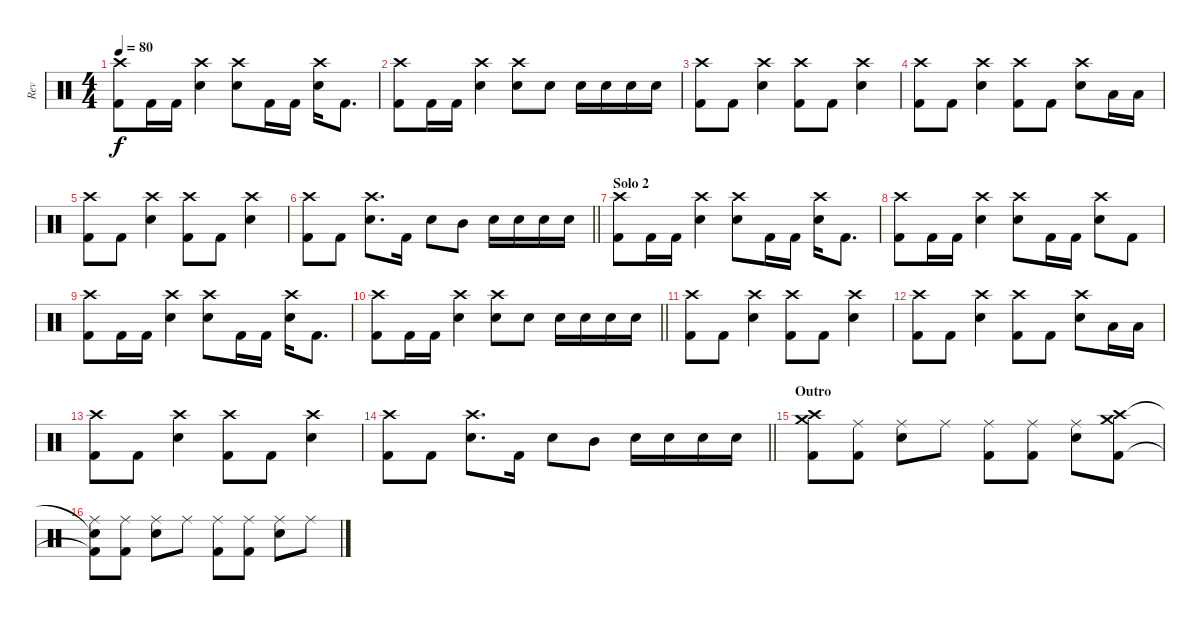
\track ("Rev" "Rev") {instrument percussion}
\staff {score}
\articulation defaults
\ts (4 4)
\tempo 80
\clef neutral
\ks c
("Crash high (hit)" "Kick (hit) 2").8{dy f} "Kick (hit) 2".16 "Kick (hit) 2".16 ("Crash high (hit)" "Electric Snare (hit)").4 ("Crash high (hit)" "Electric Snare (hit)").8 "Kick (hit) 2".16 "Kick (hit) 2".16 ("Crash high (hit)" "Electric Snare (hit)").16 "Kick (hit) 2".8{d} |
("Crash high (hit)" "Kick (hit) 2").8 "Kick (hit) 2".16 "Kick (hit) 2".16 ("Crash high (hit)" "Electric Snare (hit)").4 ("Crash high (hit)" "Electric Snare (hit)").8 "Electric Snare (hit)".8 "Electric Snare (hit)".16 "Electric Snare (hit)".16 "Electric Snare (hit)".16 "Electric Snare (hit)".16 |
("Crash high (hit)" "Kick (hit) 2").8 "Kick (hit) 2".8 ("Crash high (hit)" "Electric Snare (hit)").4 ("Crash high (hit)" "Kick (hit) 2").8 "Kick (hit) 2".8 ("Crash high (hit)" "Electric Snare (hit)").4 |
("Crash high (hit)" "Kick (hit) 2").8 "Kick (hit) 2".8 ("Crash high (hit)" "Electric Snare (hit)").4 ("Crash high (hit)" "Kick (hit) 2").8 "Kick (hit) 2".8 ("Crash high (hit)" "Electric Snare (hit)").8 "Low Tom (hit)".16 "Low Floor Tom (hit)".16 |
("Crash high (hit)" "Kick (hit) 2").8 "Kick (hit) 2".8 ("Crash high (hit)" "Electric Snare (hit)").4 ("Crash high (hit)" "Kick (hit) 2").8 "Kick (hit) 2".8 ("Crash high (hit)" "Electric Snare (hit)").4 |
\barLineRight lightlight
("Crash high (hit)" "Kick (hit) 2").8 "Kick (hit) 2".8 ("Crash high (hit)" "Electric Snare (hit)").8{d} "Kick (hit) 2".16 "Electric Snare (hit)".8 "Mid Tom (hit)".8 "Electric Snare (hit)".16 "Electric Snare (hit)".16 "Electric Snare (hit)".16 "Electric Snare (hit)".16 |
\section ("" "Solo 2")
("Crash high (hit)" "Kick (hit) 2").8 "Kick (hit) 2".16 "Kick (hit) 2".16 ("Crash high (hit)" "Electric Snare (hit)").4 ("Crash high (hit)" "Electric Snare (hit)").8 "Kick (hit) 2".16 "Kick (hit) 2".16 ("Crash high (hit)" "Electric Snare (hit)").16 "Kick (hit) 2".8{d} |
("Crash high (hit)" "Kick (hit) 2").8 "Kick (hit) 2".16 "Kick (hit) 2".16 ("Crash high (hit)" "Electric Snare (hit)").4 ("Crash high (hit)" "Electric Snare (hit)").8 "Kick (hit) 2".16 "Kick (hit) 2".16 ("Crash high (hit)" "Electric Snare (hit)").8 "Kick (hit) 2".8 |
("Crash high (hit)" "Kick (hit) 2").8 "Kick (hit) 2".16 "Kick (hit) 2".16 ("Crash high (hit)" "Electric Snare (hit)").4 ("Crash high (hit)" "Electric Snare (hit)").8 "Kick (hit) 2".16 "Kick (hit) 2".16 ("Crash high (hit)" "Electric Snare (hit)").16 "Kick (hit) 2".8{d} |
\barLineRight lightlight
("Crash high (hit)" "Kick (hit) 2").8 "Kick (hit) 2".16 "Kick (hit) 2".16 ("Crash high (hit)" "Electric Snare (hit)").4 ("Crash high (hit)" "Electric Snare (hit)").8 "Electric Snare (hit)".8 "Electric Snare (hit)".16 "Electric Snare (hit)".16 "Electric Snare (hit)".16 "Electric Snare (hit)".16 |
("Crash high (hit)" "Kick (hit) 2").8 "Kick (hit) 2".8 ("Crash high (hit)" "Electric Snare (hit)").4 ("Crash high (hit)" "Kick (hit) 2").8 "Kick (hit) 2".8 ("Crash high (hit)" "Electric Snare (hit)").4 |
("Crash high (hit)" "Kick (hit) 2").8 "Kick (hit) 2".8 ("Crash high (hit)" "Electric Snare (hit)").4 ("Crash high (hit)" "Kick (hit) 2").8 "Kick (hit) 2".8 ("Crash high (hit)" "Electric Snare (hit)").8 "Low Tom (hit)".16 "Low Floor Tom (hit)".16 |
("Crash high (hit)" "Kick (hit) 2").8 "Kick (hit) 2".8 ("Crash high (hit)" "Electric Snare (hit)").4 ("Crash high (hit)" "Kick (hit) 2").8 "Kick (hit) 2".8 ("Crash high (hit)" "Electric Snare (hit)").4 |
\barLineRight lightlight
("Crash high (hit)" "Kick (hit) 2").8 "Kick (hit) 2".8 ("Crash high (hit)" "Electric Snare (hit)").8{d} "Kick (hit) 2".16 "Electric Snare (hit)".8 "Mid Tom (hit)".8 "Electric Snare (hit)".16 "Electric Snare (hit)".16 "Electric Snare (hit)".16 "Electric Snare (hit)".16 |
\section ("" "Outro")
("Crash high (hit)" "Crash medium (hit)" "Kick (hit) 2").8 ("Ride (middle)" "Kick (hit) 2").8 ("Ride (middle)" "Electric Snare (hit)").8 "Ride (middle)".8 ("Ride (middle)" "Kick (hit) 2").8 ("Ride (middle)" "Kick (hit) 2").8 ("Ride (middle)" "Electric Snare (hit)").8 ("Crash high (hit)" "Crash medium (hit)" "Kick (hit) 2").8 |
("Snare (hit)"{t} "Ride (middle)" "Kick (hit) 2"{t}).8 ("Ride (middle)" "Kick (hit) 2").8 ("Ride (middle)" "Electric Snare (hit)").8 "Ride (middle)".8 ("Ride (middle)" "Kick (hit) 2").8 ("Ride (middle)" "Kick (hit) 2").8 ("Ride (middle)" "Electric Snare (hit)").8 "Ride (middle)".8
